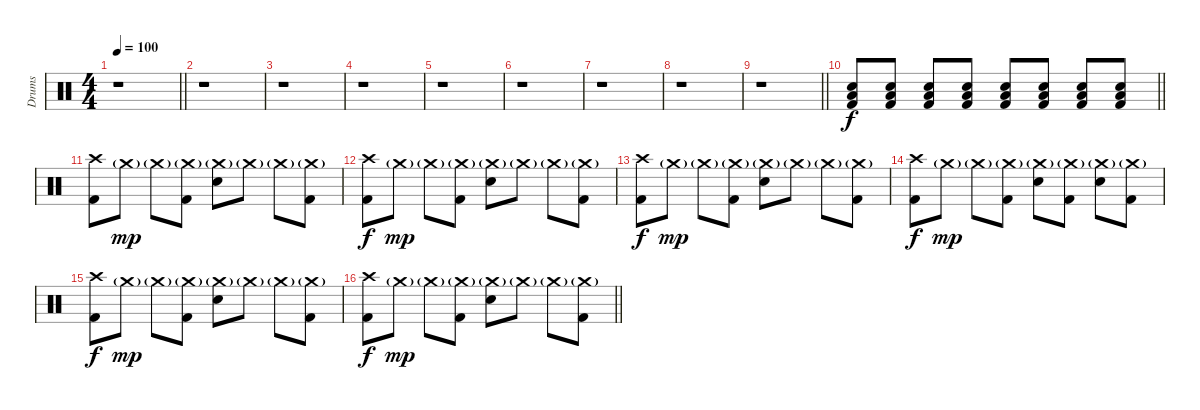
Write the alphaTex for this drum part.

\track ("Drums" "Drums") {instrument percussion}
\staff {score}
\articulation defaults
\ts (4 4)
\tempo 100
\clef neutral
\barLineRight lightlight
\ks c
r.1{dy f} |
r.1 |
r.1 |
r.1 |
r.1 |
r.1 |
r.1 |
r.1 |
\barLineRight lightlight
r.1 |
\barLineRight lightlight
("Electric Snare (hit)" "Low Tom (hit)" "Kick (hit) 2").8 ("Electric Snare (hit)" "Low Tom (hit)" "Kick (hit) 2").8 ("Electric Snare (hit)" "Low Tom (hit)" "Kick (hit) 2").8 ("Electric Snare (hit)" "Low Tom (hit)" "Kick (hit) 2").8 ("Electric Snare (hit)" "Low Tom (hit)" "Kick (hit) 2").8 ("Electric Snare (hit)" "Low Tom (hit)" "Kick (hit) 2").8 ("Electric Snare (hit)" "Low Tom (hit)" "Kick (hit) 2").8 ("Electric Snare (hit)" "Low Tom (hit)" "Kick (hit) 2").8 |
("Crash high (hit)" "Kick (hit) 2").8 "Crash medium (hit)"{g}.8{dy mp} "Crash medium (hit)"{g}.8 ("Crash medium (hit)"{g} "Kick (hit) 2").8 ("Crash medium (hit)"{g} "Electric Snare (hit)").8 "Crash medium (hit)"{g}.8 "Crash medium (hit)"{g}.8 ("Crash medium (hit)"{g} "Kick (hit) 2").8 |
("Crash high (hit)" "Kick (hit) 2").8{dy f} "Crash medium (hit)"{g}.8{dy mp} "Crash medium (hit)"{g}.8 ("Crash medium (hit)"{g} "Kick (hit) 2").8 ("Crash medium (hit)"{g} "Electric Snare (hit)").8 "Crash medium (hit)"{g}.8 "Crash medium (hit)"{g}.8 ("Crash medium (hit)"{g} "Kick (hit) 2").8 |
("Crash high (hit)" "Kick (hit) 2").8{dy f} "Crash medium (hit)"{g}.8{dy mp} "Crash medium (hit)"{g}.8 ("Crash medium (hit)"{g} "Kick (hit) 2").8 ("Crash medium (hit)"{g} "Electric Snare (hit)").8 "Crash medium (hit)"{g}.8 "Crash medium (hit)"{g}.8 ("Crash medium (hit)"{g} "Kick (hit) 2").8 |
("Crash high (hit)" "Kick (hit) 2").8{dy f} "Crash medium (hit)"{g}.8{dy mp} "Crash medium (hit)"{g}.8 ("Crash medium (hit)"{g} "Kick (hit) 2").8 ("Crash medium (hit)"{g} "Electric Snare (hit)").8 ("Crash medium (hit)"{g} "Kick (hit) 2").8 ("Crash medium (hit)"{g} "Electric Snare (hit)").8 ("Crash medium (hit)"{g} "Kick (hit) 2").8 |
("Crash high (hit)" "Kick (hit) 2").8{dy f} "Crash medium (hit)"{g}.8{dy mp} "Crash medium (hit)"{g}.8 ("Crash medium (hit)"{g} "Kick (hit) 2").8 ("Crash medium (hit)"{g} "Electric Snare (hit)").8 "Crash medium (hit)"{g}.8 "Crash medium (hit)"{g}.8 ("Crash medium (hit)"{g} "Kick (hit) 2").8 |
\barLineRight lightlight
("Crash high (hit)" "Kick (hit) 2").8{dy f} "Crash medium (hit)"{g}.8{dy mp} "Crash medium (hit)"{g}.8 ("Crash medium (hit)"{g} "Kick (hit) 2").8 ("Crash medium (hit)"{g} "Electric Snare (hit)").8 "Crash medium (hit)"{g}.8 "Crash medium (hit)"{g}.8 ("Crash medium (hit)"{g} "Kick (hit) 2").8
